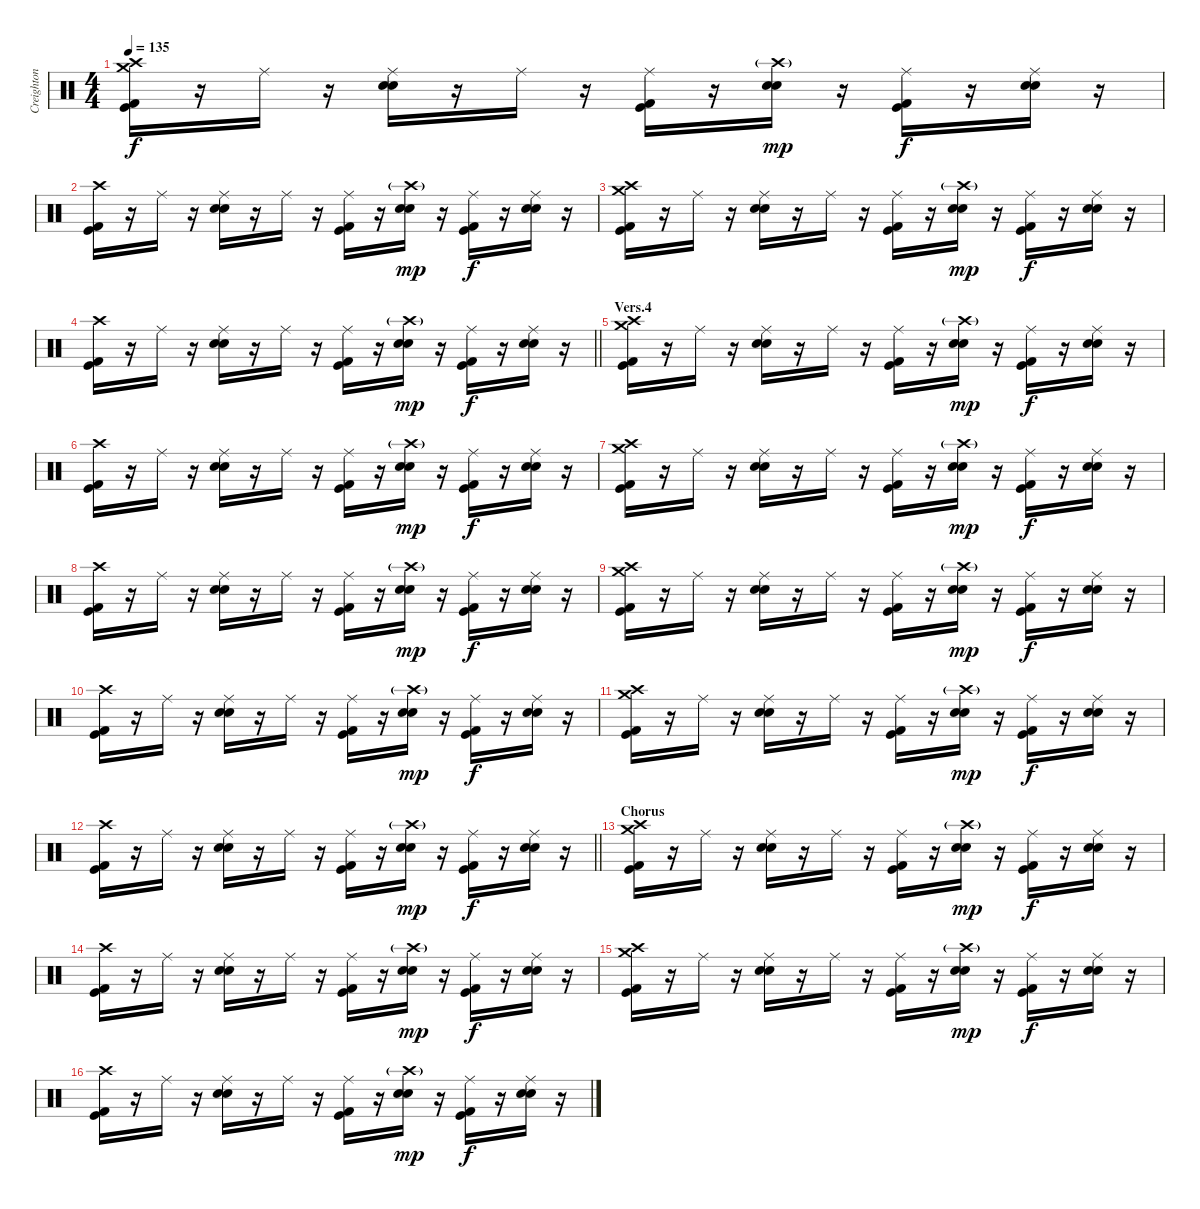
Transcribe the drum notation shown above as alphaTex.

\track ("Creighton Barrett (Drums)" "Creighton ") {instrument percussion}
\staff {score}
\articulation defaults
\ts (4 4)
\tempo 135
\clef neutral
\ks c
("Crash high (hit)" "Crash medium (hit)" "Kick (hit)" "Kick (hit) 2").16{dy f} r.16 "Ride (middle)".16 r.16 ("Ride (middle)" "Electric Snare (hit)" "Snare (hit) 2").16 r.16 "Ride (middle)".16 r.16 ("Ride (middle)" "Kick (hit)" "Kick (hit) 2").16 r.16 ("Crash high (hit)"{g} "Electric Snare (hit)" "Snare (hit) 2").16{dy mp} r.16 ("Ride (middle)" "Kick (hit)" "Kick (hit) 2").16{dy f} r.16 ("Ride (middle)" "Electric Snare (hit)" "Snare (hit) 2").16 r.16 |
("Crash high (hit)" "Kick (hit)" "Kick (hit) 2").16 r.16 "Ride (middle)".16 r.16 ("Ride (middle)" "Electric Snare (hit)" "Snare (hit) 2").16 r.16 "Ride (middle)".16 r.16 ("Ride (middle)" "Kick (hit)" "Kick (hit) 2").16 r.16 ("Crash high (hit)"{g} "Electric Snare (hit)" "Snare (hit) 2").16{dy mp} r.16 ("Ride (middle)" "Kick (hit)" "Kick (hit) 2").16{dy f} r.16 ("Ride (middle)" "Electric Snare (hit)" "Snare (hit) 2").16 r.16 |
("Crash high (hit)" "Crash medium (hit)" "Kick (hit)" "Kick (hit) 2").16 r.16 "Ride (middle)".16 r.16 ("Ride (middle)" "Electric Snare (hit)" "Snare (hit) 2").16 r.16 "Ride (middle)".16 r.16 ("Ride (middle)" "Kick (hit)" "Kick (hit) 2").16 r.16 ("Crash high (hit)"{g} "Electric Snare (hit)" "Snare (hit) 2").16{dy mp} r.16 ("Ride (middle)" "Kick (hit)" "Kick (hit) 2").16{dy f} r.16 ("Ride (middle)" "Electric Snare (hit)" "Snare (hit) 2").16 r.16 |
\barLineRight lightlight
("Crash high (hit)" "Kick (hit)" "Kick (hit) 2").16 r.16 "Ride (middle)".16 r.16 ("Ride (middle)" "Electric Snare (hit)" "Snare (hit) 2").16 r.16 "Ride (middle)".16 r.16 ("Ride (middle)" "Kick (hit)" "Kick (hit) 2").16 r.16 ("Crash high (hit)"{g} "Electric Snare (hit)" "Snare (hit) 2").16{dy mp} r.16 ("Ride (middle)" "Kick (hit)" "Kick (hit) 2").16{dy f} r.16 ("Ride (middle)" "Electric Snare (hit)" "Snare (hit) 2").16 r.16 |
\section ("" "Vers.4")
("Crash high (hit)" "Crash medium (hit)" "Kick (hit)" "Kick (hit) 2").16 r.16 "Ride (middle)".16 r.16 ("Ride (middle)" "Electric Snare (hit)" "Snare (hit) 2").16 r.16 "Ride (middle)".16 r.16 ("Ride (middle)" "Kick (hit)" "Kick (hit) 2").16 r.16 ("Crash high (hit)"{g} "Electric Snare (hit)" "Snare (hit) 2").16{dy mp} r.16 ("Ride (middle)" "Kick (hit)" "Kick (hit) 2").16{dy f} r.16 ("Ride (middle)" "Electric Snare (hit)" "Snare (hit) 2").16 r.16 |
("Crash high (hit)" "Kick (hit)" "Kick (hit) 2").16 r.16 "Ride (middle)".16 r.16 ("Ride (middle)" "Electric Snare (hit)" "Snare (hit) 2").16 r.16 "Ride (middle)".16 r.16 ("Ride (middle)" "Kick (hit)" "Kick (hit) 2").16 r.16 ("Crash high (hit)"{g} "Electric Snare (hit)" "Snare (hit) 2").16{dy mp} r.16 ("Ride (middle)" "Kick (hit)" "Kick (hit) 2").16{dy f} r.16 ("Ride (middle)" "Electric Snare (hit)" "Snare (hit) 2").16 r.16 |
("Crash high (hit)" "Crash medium (hit)" "Kick (hit)" "Kick (hit) 2").16 r.16 "Ride (middle)".16 r.16 ("Ride (middle)" "Electric Snare (hit)" "Snare (hit) 2").16 r.16 "Ride (middle)".16 r.16 ("Ride (middle)" "Kick (hit)" "Kick (hit) 2").16 r.16 ("Crash high (hit)"{g} "Electric Snare (hit)" "Snare (hit) 2").16{dy mp} r.16 ("Ride (middle)" "Kick (hit)" "Kick (hit) 2").16{dy f} r.16 ("Ride (middle)" "Electric Snare (hit)" "Snare (hit) 2").16 r.16 |
("Crash high (hit)" "Kick (hit)" "Kick (hit) 2").16 r.16 "Ride (middle)".16 r.16 ("Ride (middle)" "Electric Snare (hit)" "Snare (hit) 2").16 r.16 "Ride (middle)".16 r.16 ("Ride (middle)" "Kick (hit)" "Kick (hit) 2").16 r.16 ("Crash high (hit)"{g} "Electric Snare (hit)" "Snare (hit) 2").16{dy mp} r.16 ("Ride (middle)" "Kick (hit)" "Kick (hit) 2").16{dy f} r.16 ("Ride (middle)" "Electric Snare (hit)" "Snare (hit) 2").16 r.16 |
("Crash high (hit)" "Crash medium (hit)" "Kick (hit)" "Kick (hit) 2").16 r.16 "Ride (middle)".16 r.16 ("Ride (middle)" "Electric Snare (hit)" "Snare (hit) 2").16 r.16 "Ride (middle)".16 r.16 ("Ride (middle)" "Kick (hit)" "Kick (hit) 2").16 r.16 ("Crash high (hit)"{g} "Electric Snare (hit)" "Snare (hit) 2").16{dy mp} r.16 ("Ride (middle)" "Kick (hit)" "Kick (hit) 2").16{dy f} r.16 ("Ride (middle)" "Electric Snare (hit)" "Snare (hit) 2").16 r.16 |
("Crash high (hit)" "Kick (hit)" "Kick (hit) 2").16 r.16 "Ride (middle)".16 r.16 ("Ride (middle)" "Electric Snare (hit)" "Snare (hit) 2").16 r.16 "Ride (middle)".16 r.16 ("Ride (middle)" "Kick (hit)" "Kick (hit) 2").16 r.16 ("Crash high (hit)"{g} "Electric Snare (hit)" "Snare (hit) 2").16{dy mp} r.16 ("Ride (middle)" "Kick (hit)" "Kick (hit) 2").16{dy f} r.16 ("Ride (middle)" "Electric Snare (hit)" "Snare (hit) 2").16 r.16 |
("Crash high (hit)" "Crash medium (hit)" "Kick (hit)" "Kick (hit) 2").16 r.16 "Ride (middle)".16 r.16 ("Ride (middle)" "Electric Snare (hit)" "Snare (hit) 2").16 r.16 "Ride (middle)".16 r.16 ("Ride (middle)" "Kick (hit)" "Kick (hit) 2").16 r.16 ("Crash high (hit)"{g} "Electric Snare (hit)" "Snare (hit) 2").16{dy mp} r.16 ("Ride (middle)" "Kick (hit)" "Kick (hit) 2").16{dy f} r.16 ("Ride (middle)" "Electric Snare (hit)" "Snare (hit) 2").16 r.16 |
\barLineRight lightlight
("Crash high (hit)" "Kick (hit)" "Kick (hit) 2").16 r.16 "Ride (middle)".16 r.16 ("Ride (middle)" "Electric Snare (hit)" "Snare (hit) 2").16 r.16 "Ride (middle)".16 r.16 ("Ride (middle)" "Kick (hit)" "Kick (hit) 2").16 r.16 ("Crash high (hit)"{g} "Electric Snare (hit)" "Snare (hit) 2").16{dy mp} r.16 ("Ride (middle)" "Kick (hit)" "Kick (hit) 2").16{dy f} r.16 ("Ride (middle)" "Electric Snare (hit)" "Snare (hit) 2").16 r.16 |
\section ("" "Chorus")
("Crash high (hit)" "Crash medium (hit)" "Kick (hit)" "Kick (hit) 2").16 r.16 "Ride (middle)".16 r.16 ("Ride (middle)" "Electric Snare (hit)" "Snare (hit) 2").16 r.16 "Ride (middle)".16 r.16 ("Ride (middle)" "Kick (hit)" "Kick (hit) 2").16 r.16 ("Crash high (hit)"{g} "Electric Snare (hit)" "Snare (hit) 2").16{dy mp} r.16 ("Ride (middle)" "Kick (hit)" "Kick (hit) 2").16{dy f} r.16 ("Ride (middle)" "Electric Snare (hit)" "Snare (hit) 2").16 r.16 |
("Crash high (hit)" "Kick (hit)" "Kick (hit) 2").16 r.16 "Ride (middle)".16 r.16 ("Ride (middle)" "Electric Snare (hit)" "Snare (hit) 2").16 r.16 "Ride (middle)".16 r.16 ("Ride (middle)" "Kick (hit)" "Kick (hit) 2").16 r.16 ("Crash high (hit)"{g} "Electric Snare (hit)" "Snare (hit) 2").16{dy mp} r.16 ("Ride (middle)" "Kick (hit)" "Kick (hit) 2").16{dy f} r.16 ("Ride (middle)" "Electric Snare (hit)" "Snare (hit) 2").16 r.16 |
("Crash high (hit)" "Crash medium (hit)" "Kick (hit)" "Kick (hit) 2").16 r.16 "Ride (middle)".16 r.16 ("Ride (middle)" "Electric Snare (hit)" "Snare (hit) 2").16 r.16 "Ride (middle)".16 r.16 ("Ride (middle)" "Kick (hit)" "Kick (hit) 2").16 r.16 ("Crash high (hit)"{g} "Electric Snare (hit)" "Snare (hit) 2").16{dy mp} r.16 ("Ride (middle)" "Kick (hit)" "Kick (hit) 2").16{dy f} r.16 ("Ride (middle)" "Electric Snare (hit)" "Snare (hit) 2").16 r.16 |
("Crash high (hit)" "Kick (hit)" "Kick (hit) 2").16 r.16 "Ride (middle)".16 r.16 ("Ride (middle)" "Electric Snare (hit)" "Snare (hit) 2").16 r.16 "Ride (middle)".16 r.16 ("Ride (middle)" "Kick (hit)" "Kick (hit) 2").16 r.16 ("Crash high (hit)"{g} "Electric Snare (hit)" "Snare (hit) 2").16{dy mp} r.16 ("Ride (middle)" "Kick (hit)" "Kick (hit) 2").16{dy f} r.16 ("Ride (middle)" "Electric Snare (hit)" "Snare (hit) 2").16 r.16
